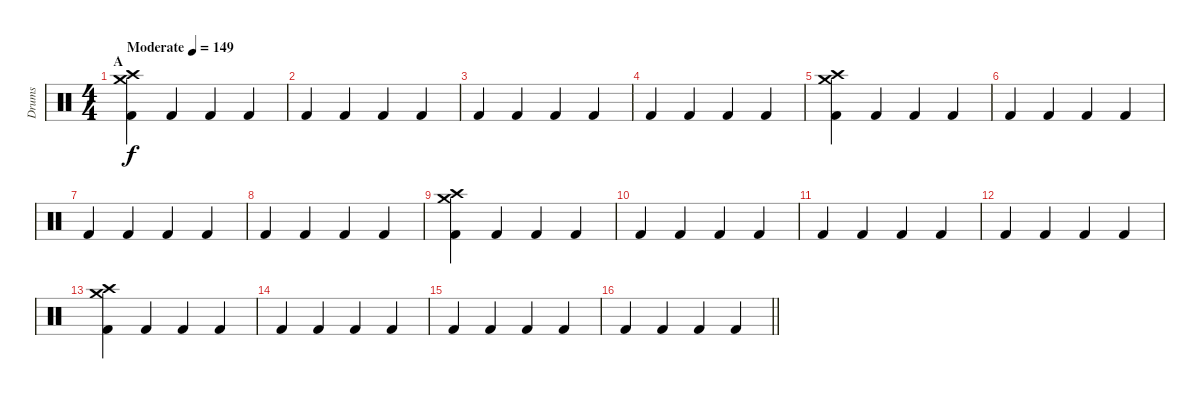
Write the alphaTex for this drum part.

\track ("Drums" "Drums") {instrument percussion}
\staff {score}
\articulation defaults
\ts (4 4)
\section ("" "A")
\tempo (149 "Moderate")
\clef neutral
\ks c
("Crash medium (hit)" "Crash high (hit)" "Kick (hit) 2").4{dy f} "Kick (hit) 2".4 "Kick (hit) 2".4 "Kick (hit) 2".4 |
"Kick (hit) 2".4 "Kick (hit) 2".4 "Kick (hit) 2".4 "Kick (hit) 2".4 |
"Kick (hit) 2".4 "Kick (hit) 2".4 "Kick (hit) 2".4 "Kick (hit) 2".4 |
"Kick (hit) 2".4 "Kick (hit) 2".4 "Kick (hit) 2".4 "Kick (hit) 2".4 |
("Crash medium (hit)" "Crash high (hit)" "Kick (hit) 2").4 "Kick (hit) 2".4 "Kick (hit) 2".4 "Kick (hit) 2".4 |
"Kick (hit) 2".4 "Kick (hit) 2".4 "Kick (hit) 2".4 "Kick (hit) 2".4 |
"Kick (hit) 2".4 "Kick (hit) 2".4 "Kick (hit) 2".4 "Kick (hit) 2".4 |
"Kick (hit) 2".4 "Kick (hit) 2".4 "Kick (hit) 2".4 "Kick (hit) 2".4 |
("Crash medium (hit)" "Crash high (hit)" "Kick (hit) 2").4 "Kick (hit) 2".4 "Kick (hit) 2".4 "Kick (hit) 2".4 |
"Kick (hit) 2".4 "Kick (hit) 2".4 "Kick (hit) 2".4 "Kick (hit) 2".4 |
"Kick (hit) 2".4 "Kick (hit) 2".4 "Kick (hit) 2".4 "Kick (hit) 2".4 |
"Kick (hit) 2".4 "Kick (hit) 2".4 "Kick (hit) 2".4 "Kick (hit) 2".4 |
("Crash medium (hit)" "Crash high (hit)" "Kick (hit) 2").4 "Kick (hit) 2".4 "Kick (hit) 2".4 "Kick (hit) 2".4 |
"Kick (hit) 2".4 "Kick (hit) 2".4 "Kick (hit) 2".4 "Kick (hit) 2".4 |
"Kick (hit) 2".4 "Kick (hit) 2".4 "Kick (hit) 2".4 "Kick (hit) 2".4 |
\barLineRight lightlight "Kick (hit) 2".4 "Kick (hit) 2".4 "Kick (hit) 2".4 "Kick (hit) 2".4
